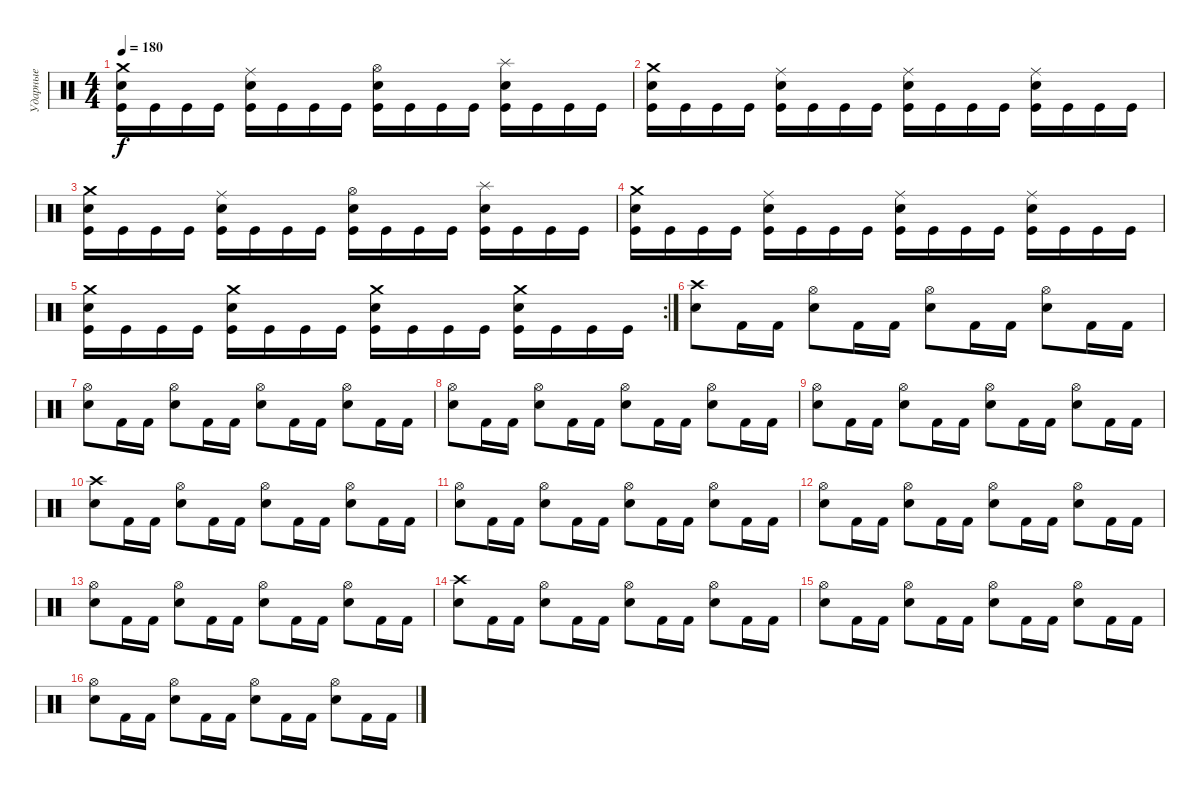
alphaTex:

\track ("Ударные" "Ударные") {instrument percussion}
\staff {score}
\articulation defaults
\ts (4 4)
\tempo 180
\clef neutral
\ks c
("Crash medium (hit)" "Electric Snare (hit)" "Kick (hit)").16{dy f} "Kick (hit)".16 "Kick (hit)".16 "Kick (hit)".16 ("Ride (middle)" "Electric Snare (hit)" "Kick (hit)").16 "Kick (hit)".16 "Kick (hit)".16 "Kick (hit)".16 ("Hi-Hat (open)" "Electric Snare (hit)" "Kick (hit)").16 "Kick (hit)".16 "Kick (hit)".16 "Kick (hit)".16 ("Splash (hit)" "Electric Snare (hit)" "Kick (hit)").16 "Kick (hit)".16 "Kick (hit)".16 "Kick (hit)".16 |
("Crash medium (hit)" "Electric Snare (hit)" "Kick (hit)").16 "Kick (hit)".16 "Kick (hit)".16 "Kick (hit)".16 ("Ride (middle)" "Electric Snare (hit)" "Kick (hit)").16 "Kick (hit)".16 "Kick (hit)".16 "Kick (hit)".16 ("Ride (middle)" "Electric Snare (hit)" "Kick (hit)").16 "Kick (hit)".16 "Kick (hit)".16 "Kick (hit)".16 ("Ride (middle)" "Electric Snare (hit)" "Kick (hit)").16 "Kick (hit)".16 "Kick (hit)".16 "Kick (hit)".16 |
("Crash medium (hit)" "Electric Snare (hit)" "Kick (hit)").16 "Kick (hit)".16 "Kick (hit)".16 "Kick (hit)".16 ("Ride (middle)" "Electric Snare (hit)" "Kick (hit)").16 "Kick (hit)".16 "Kick (hit)".16 "Kick (hit)".16 ("Hi-Hat (open)" "Electric Snare (hit)" "Kick (hit)").16 "Kick (hit)".16 "Kick (hit)".16 "Kick (hit)".16 ("Splash (hit)" "Electric Snare (hit)" "Kick (hit)").16 "Kick (hit)".16 "Kick (hit)".16 "Kick (hit)".16 |
("Crash medium (hit)" "Electric Snare (hit)" "Kick (hit)").16 "Kick (hit)".16 "Kick (hit)".16 "Kick (hit)".16 ("Ride (middle)" "Electric Snare (hit)" "Kick (hit)").16 "Kick (hit)".16 "Kick (hit)".16 "Kick (hit)".16 ("Ride (middle)" "Electric Snare (hit)" "Kick (hit)").16 "Kick (hit)".16 "Kick (hit)".16 "Kick (hit)".16 ("Ride (middle)" "Electric Snare (hit)" "Kick (hit)").16 "Kick (hit)".16 "Kick (hit)".16 "Kick (hit)".16 |
\rc 2
("Crash medium (hit)" "Electric Snare (hit)" "Kick (hit)").16 "Kick (hit)".16 "Kick (hit)".16 "Kick (hit)".16 ("Crash medium (hit)" "Electric Snare (hit)" "Kick (hit)").16 "Kick (hit)".16 "Kick (hit)".16 "Kick (hit)".16 ("Crash medium (hit)" "Electric Snare (hit)" "Kick (hit)").16 "Kick (hit)".16 "Kick (hit)".16 "Kick (hit)".16 ("Crash medium (hit)" "Electric Snare (hit)" "Kick (hit)").16 "Kick (hit)".16 "Kick (hit)".16 "Kick (hit)".16 |
("Crash high (hit)" "Electric Snare (hit)").8 "Kick (hit) 2".16 "Kick (hit) 2".16 ("Hi-Hat (open)" "Electric Snare (hit)").8 "Kick (hit) 2".16 "Kick (hit) 2".16 ("Hi-Hat (open)" "Electric Snare (hit)").8 "Kick (hit) 2".16 "Kick (hit) 2".16 ("Hi-Hat (open)" "Electric Snare (hit)").8 "Kick (hit) 2".16 "Kick (hit) 2".16 |
("Hi-Hat (open)" "Electric Snare (hit)").8 "Kick (hit) 2".16 "Kick (hit) 2".16 ("Hi-Hat (open)" "Electric Snare (hit)").8 "Kick (hit) 2".16 "Kick (hit) 2".16 ("Hi-Hat (open)" "Electric Snare (hit)").8 "Kick (hit) 2".16 "Kick (hit) 2".16 ("Hi-Hat (open)" "Electric Snare (hit)").8 "Kick (hit) 2".16 "Kick (hit) 2".16 |
("Hi-Hat (open)" "Electric Snare (hit)").8 "Kick (hit) 2".16 "Kick (hit) 2".16 ("Hi-Hat (open)" "Electric Snare (hit)").8 "Kick (hit) 2".16 "Kick (hit) 2".16 ("Hi-Hat (open)" "Electric Snare (hit)").8 "Kick (hit) 2".16 "Kick (hit) 2".16 ("Hi-Hat (open)" "Electric Snare (hit)").8 "Kick (hit) 2".16 "Kick (hit) 2".16 |
("Hi-Hat (open)" "Electric Snare (hit)").8 "Kick (hit) 2".16 "Kick (hit) 2".16 ("Hi-Hat (open)" "Electric Snare (hit)").8 "Kick (hit) 2".16 "Kick (hit) 2".16 ("Hi-Hat (open)" "Electric Snare (hit)").8 "Kick (hit) 2".16 "Kick (hit) 2".16 ("Hi-Hat (open)" "Electric Snare (hit)").8 "Kick (hit) 2".16 "Kick (hit) 2".16 |
("Crash high (hit)" "Electric Snare (hit)").8 "Kick (hit) 2".16 "Kick (hit) 2".16 ("Hi-Hat (open)" "Electric Snare (hit)").8 "Kick (hit) 2".16 "Kick (hit) 2".16 ("Hi-Hat (open)" "Electric Snare (hit)").8 "Kick (hit) 2".16 "Kick (hit) 2".16 ("Hi-Hat (open)" "Electric Snare (hit)").8 "Kick (hit) 2".16 "Kick (hit) 2".16 |
("Hi-Hat (open)" "Electric Snare (hit)").8 "Kick (hit) 2".16 "Kick (hit) 2".16 ("Hi-Hat (open)" "Electric Snare (hit)").8 "Kick (hit) 2".16 "Kick (hit) 2".16 ("Hi-Hat (open)" "Electric Snare (hit)").8 "Kick (hit) 2".16 "Kick (hit) 2".16 ("Hi-Hat (open)" "Electric Snare (hit)").8 "Kick (hit) 2".16 "Kick (hit) 2".16 |
("Hi-Hat (open)" "Electric Snare (hit)").8 "Kick (hit) 2".16 "Kick (hit) 2".16 ("Hi-Hat (open)" "Electric Snare (hit)").8 "Kick (hit) 2".16 "Kick (hit) 2".16 ("Hi-Hat (open)" "Electric Snare (hit)").8 "Kick (hit) 2".16 "Kick (hit) 2".16 ("Hi-Hat (open)" "Electric Snare (hit)").8 "Kick (hit) 2".16 "Kick (hit) 2".16 |
("Hi-Hat (open)" "Electric Snare (hit)").8 "Kick (hit) 2".16 "Kick (hit) 2".16 ("Hi-Hat (open)" "Electric Snare (hit)").8 "Kick (hit) 2".16 "Kick (hit) 2".16 ("Hi-Hat (open)" "Electric Snare (hit)").8 "Kick (hit) 2".16 "Kick (hit) 2".16 ("Hi-Hat (open)" "Electric Snare (hit)").8 "Kick (hit) 2".16 "Kick (hit) 2".16 |
("Crash high (hit)" "Electric Snare (hit)").8 "Kick (hit) 2".16 "Kick (hit) 2".16 ("Hi-Hat (open)" "Electric Snare (hit)").8 "Kick (hit) 2".16 "Kick (hit) 2".16 ("Hi-Hat (open)" "Electric Snare (hit)").8 "Kick (hit) 2".16 "Kick (hit) 2".16 ("Hi-Hat (open)" "Electric Snare (hit)").8 "Kick (hit) 2".16 "Kick (hit) 2".16 |
("Hi-Hat (open)" "Electric Snare (hit)").8 "Kick (hit) 2".16 "Kick (hit) 2".16 ("Hi-Hat (open)" "Electric Snare (hit)").8 "Kick (hit) 2".16 "Kick (hit) 2".16 ("Hi-Hat (open)" "Electric Snare (hit)").8 "Kick (hit) 2".16 "Kick (hit) 2".16 ("Hi-Hat (open)" "Electric Snare (hit)").8 "Kick (hit) 2".16 "Kick (hit) 2".16 |
("Hi-Hat (open)" "Electric Snare (hit)").8 "Kick (hit) 2".16 "Kick (hit) 2".16 ("Hi-Hat (open)" "Electric Snare (hit)").8 "Kick (hit) 2".16 "Kick (hit) 2".16 ("Hi-Hat (open)" "Electric Snare (hit)").8 "Kick (hit) 2".16 "Kick (hit) 2".16 ("Hi-Hat (open)" "Electric Snare (hit)").8 "Kick (hit) 2".16 "Kick (hit) 2".16
